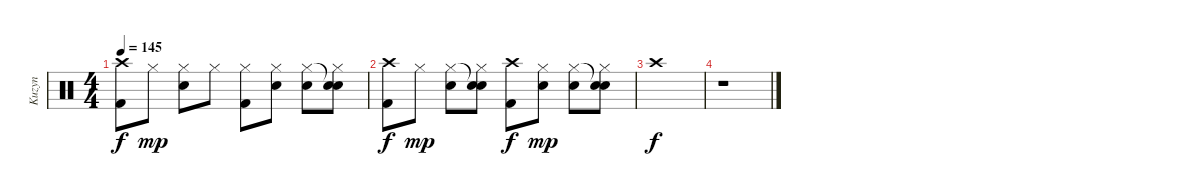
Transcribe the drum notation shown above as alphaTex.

\track ("Kuzyn" "Kuzyn") {instrument percussion}
\staff {score}
\articulation defaults
\ts (4 4)
\tempo 145
\clef neutral
\ks c
("Kick (hit) 2" "Crash high (hit)").8{dy f} "Hi-Hat (closed)".8{dy mp} ("Snare (hit) 2" "Hi-Hat (closed)").8 "Hi-Hat (closed)".8 ("Kick (hit) 2" "Hi-Hat (closed)").8 ("Snare (hit) 2" "Hi-Hat (closed)").8 ("Snare (hit) 2" "Hi-Hat (closed)").8 ("Snare (hit) 2" "Snare (hit)"{t} "Hi-Hat (closed)").8 |
("Kick (hit) 2" "Crash high (hit)").8{dy f} "Hi-Hat (closed)".8{dy mp} ("Snare (hit) 2" "Hi-Hat (closed)").8 ("Snare (hit) 2" "Snare (hit)"{t} "Hi-Hat (closed)").8 ("Kick (hit) 2" "Crash high (hit)").8{dy f} ("Snare (hit) 2" "Hi-Hat (closed)").8{dy mp} ("Snare (hit) 2" "Hi-Hat (closed)").8 ("Snare (hit) 2" "Snare (hit)"{t} "Hi-Hat (closed)").8 |
"Crash high (hit)".1{dy f} |
r.1
